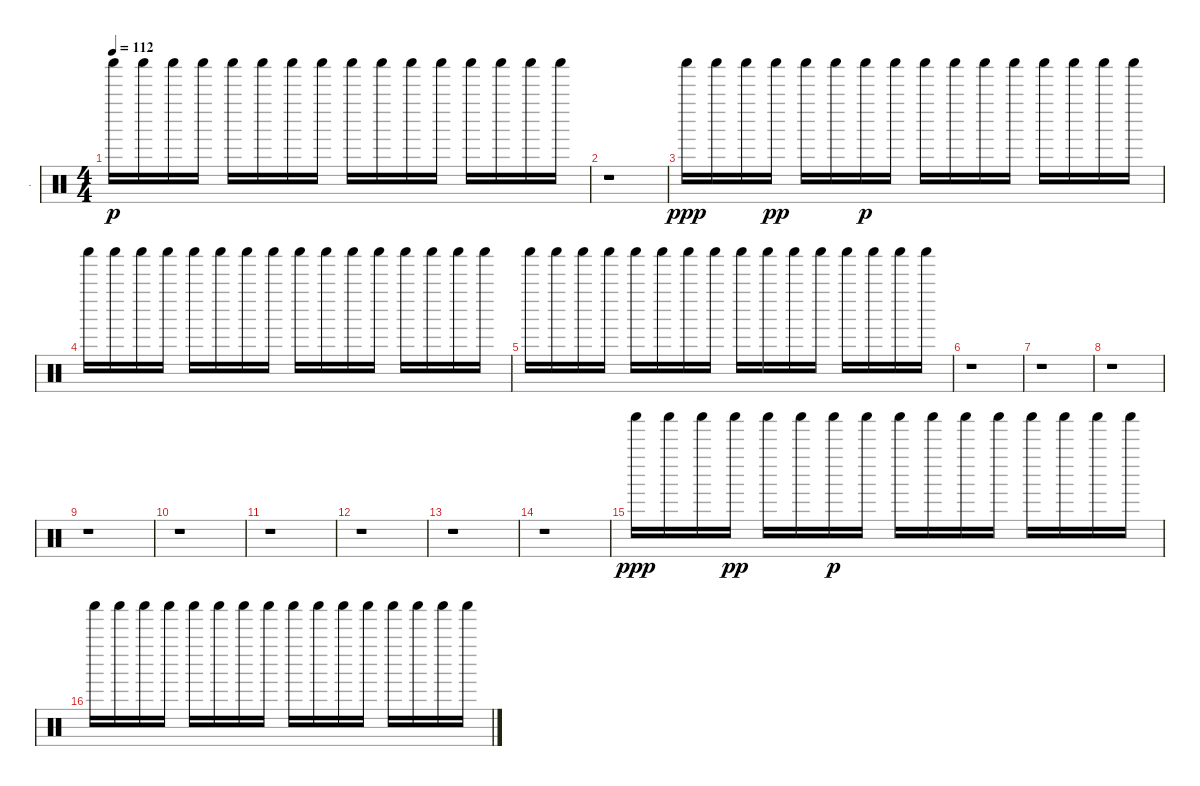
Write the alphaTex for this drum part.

\track ("." ".") {instrument percussion}
\staff {score}
\articulation defaults
\ts (4 4)
\tempo 112
\clef neutral
\ks c "Shaker (hit)".16{dy p} "Shaker (hit)".16 "Shaker (hit)".16 "Shaker (hit)".16 "Shaker (hit)".16 "Shaker (hit)".16 "Shaker (hit)".16 "Shaker (hit)".16 "Shaker (hit)".16 "Shaker (hit)".16 "Shaker (hit)".16 "Shaker (hit)".16 "Shaker (hit)".16 "Shaker (hit)".16 "Shaker (hit)".16 "Shaker (hit)".16
|
r.1 |
"Shaker (hit)".16{dy ppp} "Shaker (hit)".16 "Shaker (hit)".16 "Shaker (hit)".16{dy pp} "Shaker (hit)".16 "Shaker (hit)".16 "Shaker (hit)".16{dy p} "Shaker (hit)".16 "Shaker (hit)".16 "Shaker (hit)".16 "Shaker (hit)".16 "Shaker (hit)".16 "Shaker (hit)".16 "Shaker (hit)".16 "Shaker (hit)".16 "Shaker (hit)".16 |
"Shaker (hit)".16 "Shaker (hit)".16 "Shaker (hit)".16 "Shaker (hit)".16 "Shaker (hit)".16 "Shaker (hit)".16 "Shaker (hit)".16 "Shaker (hit)".16 "Shaker (hit)".16 "Shaker (hit)".16 "Shaker (hit)".16 "Shaker (hit)".16 "Shaker (hit)".16 "Shaker (hit)".16 "Shaker (hit)".16 "Shaker (hit)".16 |
"Shaker (hit)".16 "Shaker (hit)".16 "Shaker (hit)".16 "Shaker (hit)".16 "Shaker (hit)".16 "Shaker (hit)".16 "Shaker (hit)".16 "Shaker (hit)".16 "Shaker (hit)".16 "Shaker (hit)".16 "Shaker (hit)".16 "Shaker (hit)".16 "Shaker (hit)".16 "Shaker (hit)".16 "Shaker (hit)".16 "Shaker (hit)".16 |
r.1 |
r.1 |
r.1 |
r.1 |
r.1 |
r.1 |
r.1 |
r.1 |
r.1 |
"Shaker (hit)".16{dy ppp} "Shaker (hit)".16 "Shaker (hit)".16 "Shaker (hit)".16{dy pp} "Shaker (hit)".16 "Shaker (hit)".16 "Shaker (hit)".16{dy p} "Shaker (hit)".16 "Shaker (hit)".16 "Shaker (hit)".16 "Shaker (hit)".16 "Shaker (hit)".16 "Shaker (hit)".16 "Shaker (hit)".16 "Shaker (hit)".16 "Shaker (hit)".16 |
"Shaker (hit)".16 "Shaker (hit)".16 "Shaker (hit)".16 "Shaker (hit)".16 "Shaker (hit)".16 "Shaker (hit)".16 "Shaker (hit)".16 "Shaker (hit)".16 "Shaker (hit)".16 "Shaker (hit)".16 "Shaker (hit)".16 "Shaker (hit)".16 "Shaker (hit)".16 "Shaker (hit)".16 "Shaker (hit)".16 "Shaker (hit)".16
